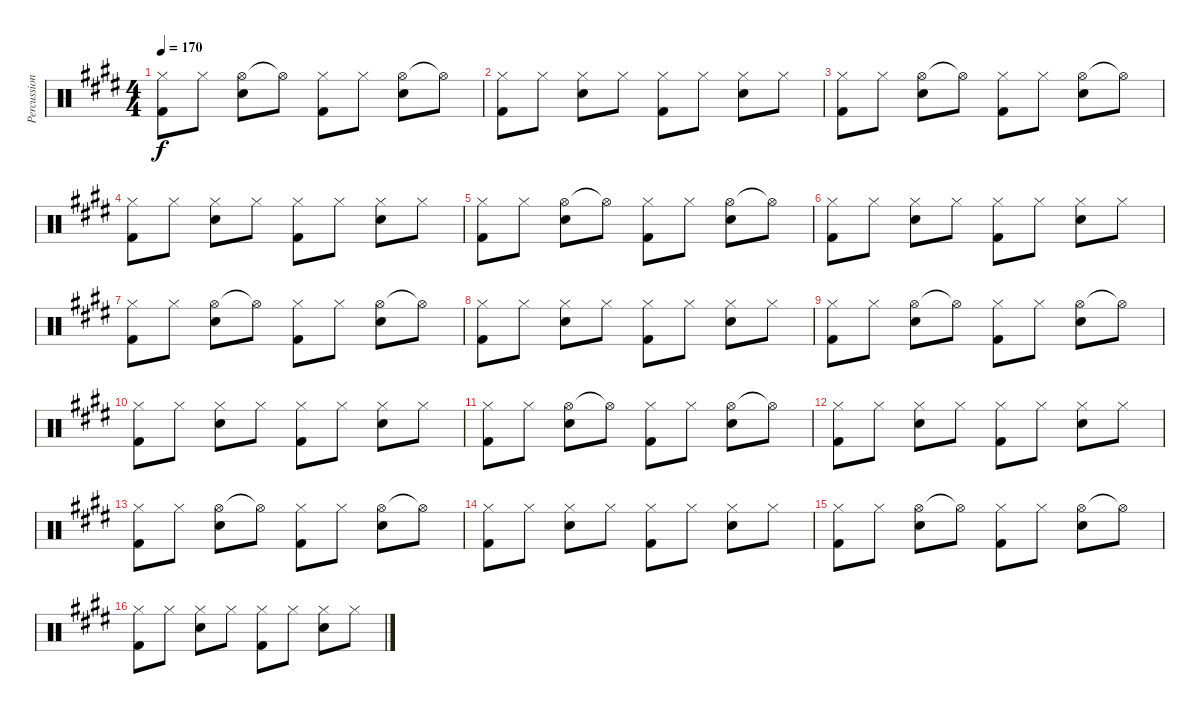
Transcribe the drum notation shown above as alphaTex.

\track ("Percussion" "Percussion") {instrument percussion}
\staff {score}
\articulation defaults
\ts (4 4)
\tempo 170
\clef neutral
\ks e
("Hi-Hat (closed)" "Kick (hit) 2").8{dy f} "Hi-Hat (closed)".8 ("Hi-Hat (open)" "Snare (hit) 2").8 "Hi-Hat (open)"{t}.8 ("Hi-Hat (closed)" "Kick (hit) 2").8 "Hi-Hat (closed)".8 ("Hi-Hat (open)" "Snare (hit) 2").8 "Hi-Hat (open)"{t}.8 |
("Hi-Hat (closed)" "Kick (hit) 2").8 "Hi-Hat (closed)".8 ("Hi-Hat (closed)" "Snare (hit) 2").8 "Hi-Hat (closed)".8 ("Hi-Hat (closed)" "Kick (hit) 2").8 "Hi-Hat (closed)".8 ("Hi-Hat (closed)" "Snare (hit) 2").8 "Hi-Hat (closed)".8 |
("Hi-Hat (closed)" "Kick (hit) 2").8 "Hi-Hat (closed)".8 ("Hi-Hat (open)" "Snare (hit) 2").8 "Hi-Hat (open)"{t}.8 ("Hi-Hat (closed)" "Kick (hit) 2").8 "Hi-Hat (closed)".8 ("Hi-Hat (open)" "Snare (hit) 2").8 "Hi-Hat (open)"{t}.8 |
("Hi-Hat (closed)" "Kick (hit) 2").8 "Hi-Hat (closed)".8 ("Hi-Hat (closed)" "Snare (hit) 2").8 "Hi-Hat (closed)".8 ("Hi-Hat (closed)" "Kick (hit) 2").8 "Hi-Hat (closed)".8 ("Hi-Hat (closed)" "Snare (hit) 2").8 "Hi-Hat (closed)".8 |
("Hi-Hat (closed)" "Kick (hit) 2").8 "Hi-Hat (closed)".8 ("Hi-Hat (open)" "Snare (hit) 2").8 "Hi-Hat (open)"{t}.8 ("Hi-Hat (closed)" "Kick (hit) 2").8 "Hi-Hat (closed)".8 ("Hi-Hat (open)" "Snare (hit) 2").8 "Hi-Hat (open)"{t}.8 |
("Hi-Hat (closed)" "Kick (hit) 2").8 "Hi-Hat (closed)".8 ("Hi-Hat (closed)" "Snare (hit) 2").8 "Hi-Hat (closed)".8 ("Hi-Hat (closed)" "Kick (hit) 2").8 "Hi-Hat (closed)".8 ("Hi-Hat (closed)" "Snare (hit) 2").8 "Hi-Hat (closed)".8 |
("Hi-Hat (closed)" "Kick (hit) 2").8 "Hi-Hat (closed)".8 ("Hi-Hat (open)" "Snare (hit) 2").8 "Hi-Hat (open)"{t}.8 ("Hi-Hat (closed)" "Kick (hit) 2").8 "Hi-Hat (closed)".8 ("Hi-Hat (open)" "Snare (hit) 2").8 "Hi-Hat (open)"{t}.8 |
("Hi-Hat (closed)" "Kick (hit) 2").8 "Hi-Hat (closed)".8 ("Hi-Hat (closed)" "Snare (hit) 2").8 "Hi-Hat (closed)".8 ("Hi-Hat (closed)" "Kick (hit) 2").8 "Hi-Hat (closed)".8 ("Hi-Hat (closed)" "Snare (hit) 2").8 "Hi-Hat (closed)".8 |
("Hi-Hat (closed)" "Kick (hit) 2").8 "Hi-Hat (closed)".8 ("Hi-Hat (open)" "Snare (hit) 2").8 "Hi-Hat (open)"{t}.8 ("Hi-Hat (closed)" "Kick (hit) 2").8 "Hi-Hat (closed)".8 ("Hi-Hat (open)" "Snare (hit) 2").8 "Hi-Hat (open)"{t}.8 |
("Hi-Hat (closed)" "Kick (hit) 2").8 "Hi-Hat (closed)".8 ("Hi-Hat (closed)" "Snare (hit) 2").8 "Hi-Hat (closed)".8 ("Hi-Hat (closed)" "Kick (hit) 2").8 "Hi-Hat (closed)".8 ("Hi-Hat (closed)" "Snare (hit) 2").8 "Hi-Hat (closed)".8 |
("Hi-Hat (closed)" "Kick (hit) 2").8 "Hi-Hat (closed)".8 ("Hi-Hat (open)" "Snare (hit) 2").8 "Hi-Hat (open)"{t}.8 ("Hi-Hat (closed)" "Kick (hit) 2").8 "Hi-Hat (closed)".8 ("Hi-Hat (open)" "Snare (hit) 2").8 "Hi-Hat (open)"{t}.8 |
("Hi-Hat (closed)" "Kick (hit) 2").8 "Hi-Hat (closed)".8 ("Hi-Hat (closed)" "Snare (hit) 2").8 "Hi-Hat (closed)".8 ("Hi-Hat (closed)" "Kick (hit) 2").8 "Hi-Hat (closed)".8 ("Hi-Hat (closed)" "Snare (hit) 2").8 "Hi-Hat (closed)".8 |
("Hi-Hat (closed)" "Kick (hit) 2").8 "Hi-Hat (closed)".8 ("Hi-Hat (open)" "Snare (hit) 2").8 "Hi-Hat (open)"{t}.8 ("Hi-Hat (closed)" "Kick (hit) 2").8 "Hi-Hat (closed)".8 ("Hi-Hat (open)" "Snare (hit) 2").8 "Hi-Hat (open)"{t}.8 |
("Hi-Hat (closed)" "Kick (hit) 2").8 "Hi-Hat (closed)".8 ("Hi-Hat (closed)" "Snare (hit) 2").8 "Hi-Hat (closed)".8 ("Hi-Hat (closed)" "Kick (hit) 2").8 "Hi-Hat (closed)".8 ("Hi-Hat (closed)" "Snare (hit) 2").8 "Hi-Hat (closed)".8 |
("Hi-Hat (closed)" "Kick (hit) 2").8 "Hi-Hat (closed)".8 ("Hi-Hat (open)" "Snare (hit) 2").8 "Hi-Hat (open)"{t}.8 ("Hi-Hat (closed)" "Kick (hit) 2").8 "Hi-Hat (closed)".8 ("Hi-Hat (open)" "Snare (hit) 2").8 "Hi-Hat (open)"{t}.8 |
("Hi-Hat (closed)" "Kick (hit) 2").8 "Hi-Hat (closed)".8 ("Hi-Hat (closed)" "Snare (hit) 2").8 "Hi-Hat (closed)".8 ("Hi-Hat (closed)" "Kick (hit) 2").8 "Hi-Hat (closed)".8 ("Hi-Hat (closed)" "Snare (hit) 2").8 "Hi-Hat (closed)".8
